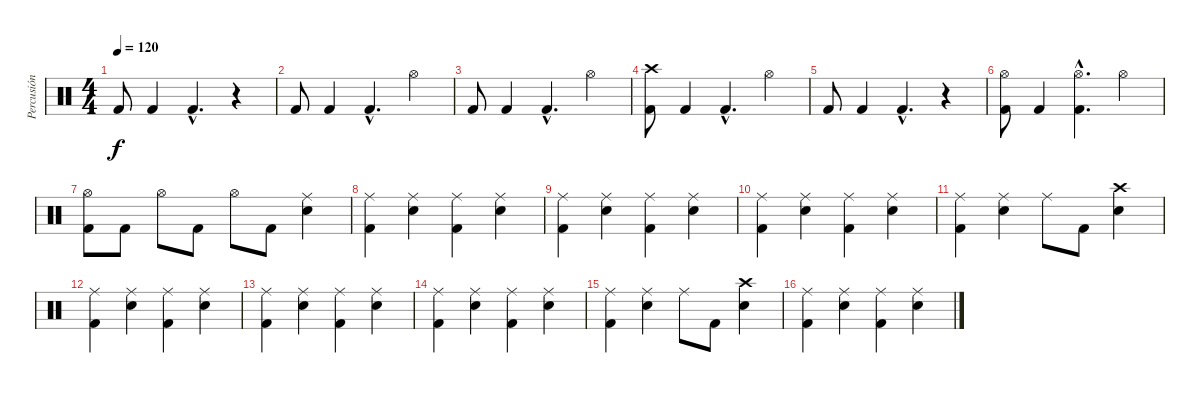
\track ("Percusión" "Percusión") {instrument percussion}
\staff {score}
\articulation defaults
\ts (4 4)
\tempo 120
\clef neutral
\ks c "Kick (hit) 2".8{dy f} "Kick (hit) 2".4 "Kick (hit) 2"{hac}.4{d}
r.4 |
"Kick (hit) 2".8 "Kick (hit) 2".4 "Kick (hit) 2"{hac}.4{d} "Hi-Hat (open)".4 |
"Kick (hit) 2".8 "Kick (hit) 2".4 "Kick (hit) 2"{hac}.4{d} "Hi-Hat (open)".4 |
("Crash high (hit)" "Kick (hit) 2").8 "Kick (hit) 2".4 "Kick (hit) 2"{hac}.4{d} "Hi-Hat (open)".4 |
"Kick (hit) 2".8 "Kick (hit) 2".4 "Kick (hit) 2"{hac}.4{d} r.4 |
("Hi-Hat (open)" "Kick (hit) 2").8 "Kick (hit) 2".4 ("Hi-Hat (open)"{hac} "Kick (hit) 2"{hac}).4{d} "Hi-Hat (open)".4 |
("Hi-Hat (open)" "Kick (hit) 2").8 "Kick (hit) 2".8 "Hi-Hat (open)".8 "Kick (hit) 2".8 "Hi-Hat (open)".8 "Kick (hit) 2".8 ("Electric Snare (hit)" "Ride (middle)").4 |
("Ride (middle)" "Kick (hit) 2").4 ("Ride (middle)" "Electric Snare (hit)").4 ("Ride (middle)" "Kick (hit) 2").4 ("Ride (middle)" "Electric Snare (hit)").4 |
("Ride (middle)" "Kick (hit) 2").4 ("Ride (middle)" "Electric Snare (hit)").4 ("Ride (middle)" "Kick (hit) 2").4 ("Ride (middle)" "Electric Snare (hit)").4 |
("Ride (middle)" "Kick (hit) 2").4 ("Ride (middle)" "Electric Snare (hit)").4 ("Ride (middle)" "Kick (hit) 2").4 ("Ride (middle)" "Electric Snare (hit)").4 |
("Ride (middle)" "Kick (hit) 2").4 ("Ride (middle)" "Electric Snare (hit)").4 "Ride (middle)".8 "Kick (hit) 2".8 ("Crash high (hit)" "Electric Snare (hit)").4 |
("Ride (middle)" "Kick (hit) 2").4 ("Ride (middle)" "Electric Snare (hit)").4 ("Ride (middle)" "Kick (hit) 2").4 ("Ride (middle)" "Electric Snare (hit)").4 |
("Ride (middle)" "Kick (hit) 2").4 ("Ride (middle)" "Electric Snare (hit)").4 ("Ride (middle)" "Kick (hit) 2").4 ("Ride (middle)" "Electric Snare (hit)").4 |
("Ride (middle)" "Kick (hit) 2").4 ("Ride (middle)" "Electric Snare (hit)").4 ("Ride (middle)" "Kick (hit) 2").4 ("Ride (middle)" "Electric Snare (hit)").4 |
("Ride (middle)" "Kick (hit) 2").4 ("Ride (middle)" "Electric Snare (hit)").4 "Ride (middle)".8 "Kick (hit) 2".8 ("Crash high (hit)" "Electric Snare (hit)").4 |
("Ride (middle)" "Kick (hit) 2").4 ("Ride (middle)" "Electric Snare (hit)").4 ("Ride (middle)" "Kick (hit) 2").4 ("Ride (middle)" "Electric Snare (hit)").4
